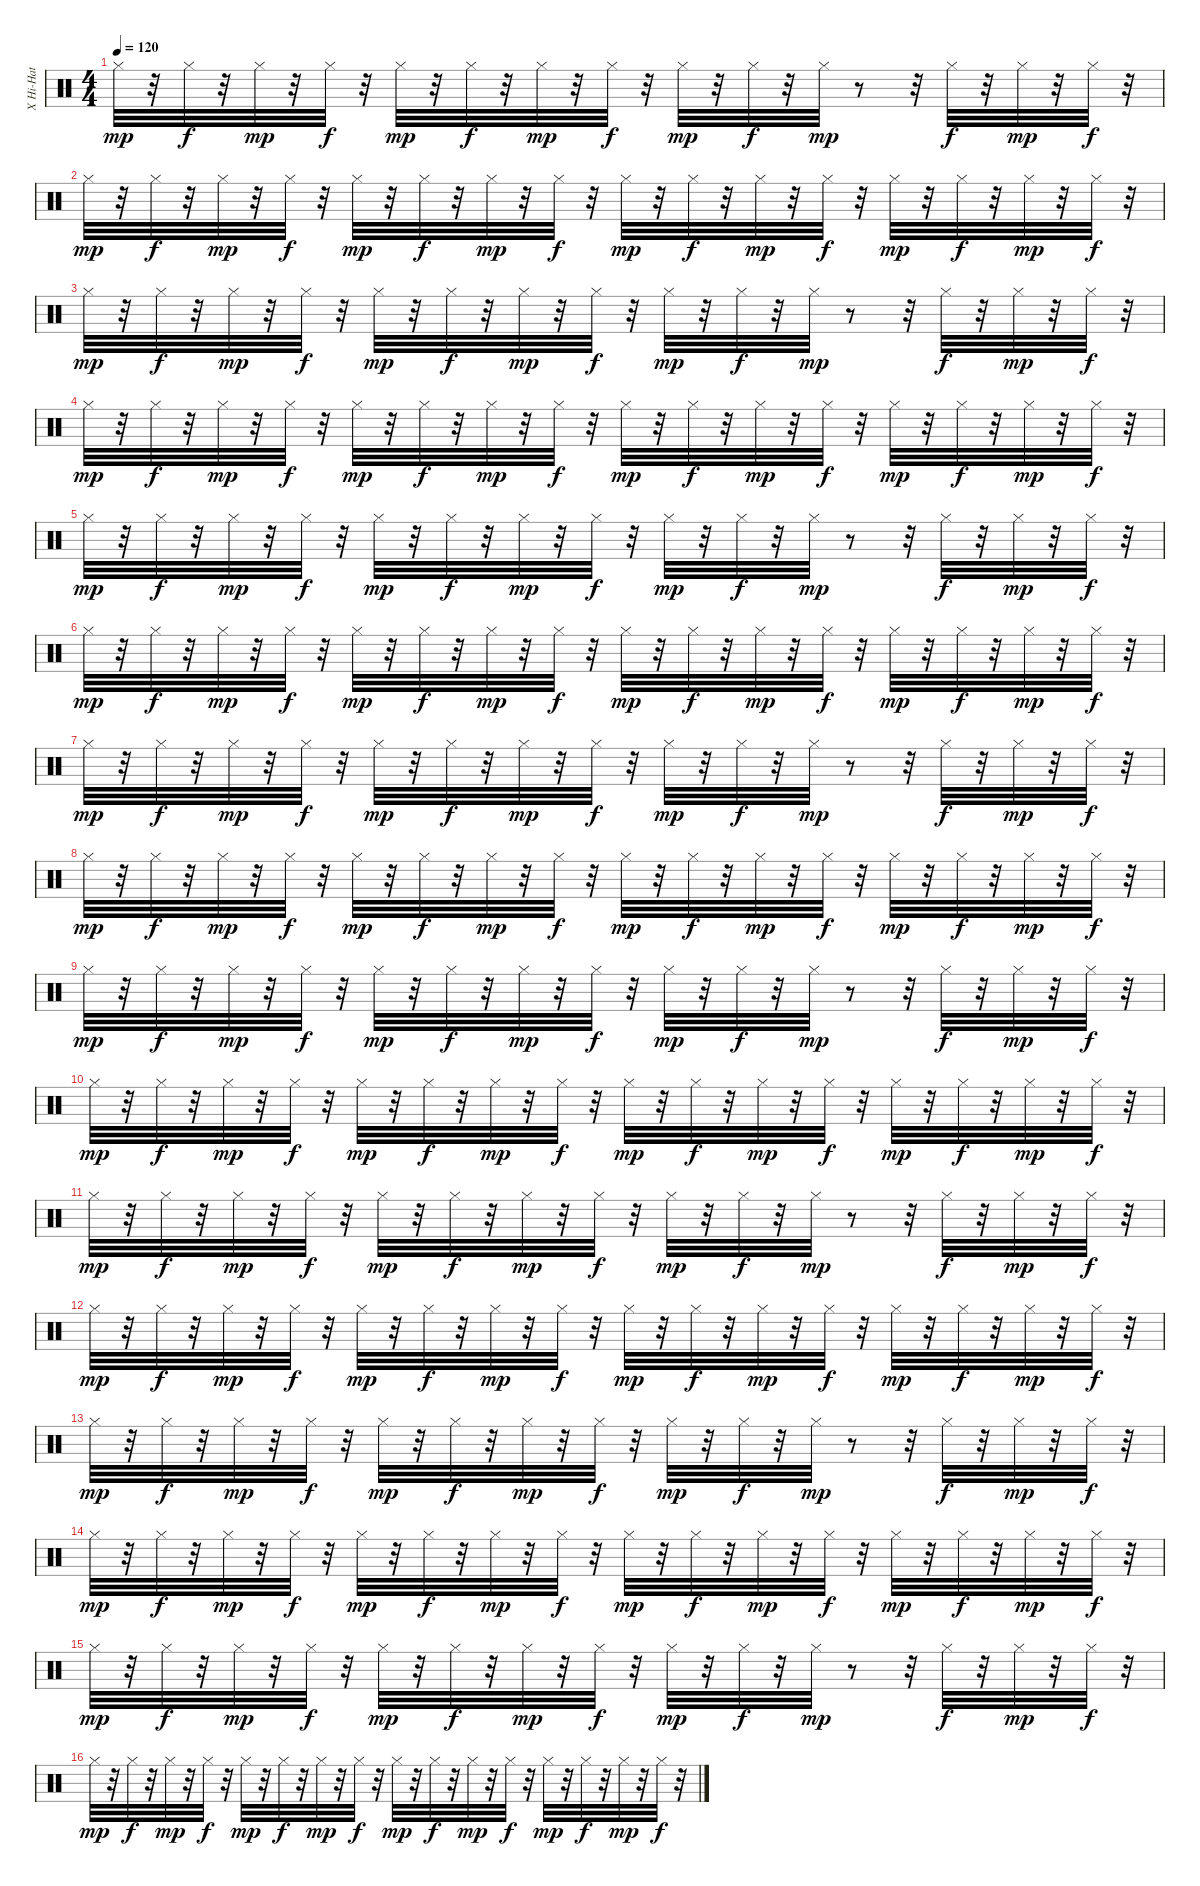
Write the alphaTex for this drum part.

\track ("X Hi-Hat            " "X Hi-Hat  ") {instrument percussion}
\staff {score}
\articulation defaults
\ts (4 4)
\tempo 120
\clef neutral
\ks c "Hi-Hat (closed)".32{dy mp}
r.32 "Hi-Hat (closed)".32{dy f} r.32 "Hi-Hat (closed)".32{dy mp} r.32 "Hi-Hat (closed)".32{dy f} r.32 "Hi-Hat (closed)".32{dy mp} r.32 "Hi-Hat (closed)".32{dy f} r.32 "Hi-Hat (closed)".32{dy mp} r.32 "Hi-Hat (closed)".32{dy f} r.32 "Hi-Hat (closed)".32{dy mp} r.32 "Hi-Hat (closed)".32{dy f} r.32 "Hi-Hat (closed)".32{dy mp} r.8 r.32 "Hi-Hat (closed)".32{dy f} r.32 "Hi-Hat (closed)".32{dy mp} r.32 "Hi-Hat (closed)".32{dy f} r.32 |
"Hi-Hat (closed)".32{dy mp} r.32 "Hi-Hat (closed)".32{dy f} r.32 "Hi-Hat (closed)".32{dy mp} r.32 "Hi-Hat (closed)".32{dy f} r.32 "Hi-Hat (closed)".32{dy mp} r.32 "Hi-Hat (closed)".32{dy f} r.32 "Hi-Hat (closed)".32{dy mp} r.32 "Hi-Hat (closed)".32{dy f} r.32 "Hi-Hat (closed)".32{dy mp} r.32 "Hi-Hat (closed)".32{dy f} r.32 "Hi-Hat (closed)".32{dy mp} r.32 "Hi-Hat (closed)".32{dy f} r.32 "Hi-Hat (closed)".32{dy mp} r.32 "Hi-Hat (closed)".32{dy f} r.32 "Hi-Hat (closed)".32{dy mp} r.32 "Hi-Hat (closed)".32{dy f} r.32 |
"Hi-Hat (closed)".32{dy mp} r.32 "Hi-Hat (closed)".32{dy f} r.32 "Hi-Hat (closed)".32{dy mp} r.32 "Hi-Hat (closed)".32{dy f} r.32 "Hi-Hat (closed)".32{dy mp} r.32 "Hi-Hat (closed)".32{dy f} r.32 "Hi-Hat (closed)".32{dy mp} r.32 "Hi-Hat (closed)".32{dy f} r.32 "Hi-Hat (closed)".32{dy mp} r.32 "Hi-Hat (closed)".32{dy f} r.32 "Hi-Hat (closed)".32{dy mp} r.8 r.32 "Hi-Hat (closed)".32{dy f} r.32 "Hi-Hat (closed)".32{dy mp} r.32 "Hi-Hat (closed)".32{dy f} r.32 |
"Hi-Hat (closed)".32{dy mp} r.32 "Hi-Hat (closed)".32{dy f} r.32 "Hi-Hat (closed)".32{dy mp} r.32 "Hi-Hat (closed)".32{dy f} r.32 "Hi-Hat (closed)".32{dy mp} r.32 "Hi-Hat (closed)".32{dy f} r.32 "Hi-Hat (closed)".32{dy mp} r.32 "Hi-Hat (closed)".32{dy f} r.32 "Hi-Hat (closed)".32{dy mp} r.32 "Hi-Hat (closed)".32{dy f} r.32 "Hi-Hat (closed)".32{dy mp} r.32 "Hi-Hat (closed)".32{dy f} r.32 "Hi-Hat (closed)".32{dy mp} r.32 "Hi-Hat (closed)".32{dy f} r.32 "Hi-Hat (closed)".32{dy mp} r.32 "Hi-Hat (closed)".32{dy f} r.32 |
"Hi-Hat (closed)".32{dy mp} r.32 "Hi-Hat (closed)".32{dy f} r.32 "Hi-Hat (closed)".32{dy mp} r.32 "Hi-Hat (closed)".32{dy f} r.32 "Hi-Hat (closed)".32{dy mp} r.32 "Hi-Hat (closed)".32{dy f} r.32 "Hi-Hat (closed)".32{dy mp} r.32 "Hi-Hat (closed)".32{dy f} r.32 "Hi-Hat (closed)".32{dy mp} r.32 "Hi-Hat (closed)".32{dy f} r.32 "Hi-Hat (closed)".32{dy mp} r.8 r.32 "Hi-Hat (closed)".32{dy f} r.32 "Hi-Hat (closed)".32{dy mp} r.32 "Hi-Hat (closed)".32{dy f} r.32 |
"Hi-Hat (closed)".32{dy mp} r.32 "Hi-Hat (closed)".32{dy f} r.32 "Hi-Hat (closed)".32{dy mp} r.32 "Hi-Hat (closed)".32{dy f} r.32 "Hi-Hat (closed)".32{dy mp} r.32 "Hi-Hat (closed)".32{dy f} r.32 "Hi-Hat (closed)".32{dy mp} r.32 "Hi-Hat (closed)".32{dy f} r.32 "Hi-Hat (closed)".32{dy mp} r.32 "Hi-Hat (closed)".32{dy f} r.32 "Hi-Hat (closed)".32{dy mp} r.32 "Hi-Hat (closed)".32{dy f} r.32 "Hi-Hat (closed)".32{dy mp} r.32 "Hi-Hat (closed)".32{dy f} r.32 "Hi-Hat (closed)".32{dy mp} r.32 "Hi-Hat (closed)".32{dy f} r.32 |
"Hi-Hat (closed)".32{dy mp} r.32 "Hi-Hat (closed)".32{dy f} r.32 "Hi-Hat (closed)".32{dy mp} r.32 "Hi-Hat (closed)".32{dy f} r.32 "Hi-Hat (closed)".32{dy mp} r.32 "Hi-Hat (closed)".32{dy f} r.32 "Hi-Hat (closed)".32{dy mp} r.32 "Hi-Hat (closed)".32{dy f} r.32 "Hi-Hat (closed)".32{dy mp} r.32 "Hi-Hat (closed)".32{dy f} r.32 "Hi-Hat (closed)".32{dy mp} r.8 r.32 "Hi-Hat (closed)".32{dy f} r.32 "Hi-Hat (closed)".32{dy mp} r.32 "Hi-Hat (closed)".32{dy f} r.32 |
"Hi-Hat (closed)".32{dy mp} r.32 "Hi-Hat (closed)".32{dy f} r.32 "Hi-Hat (closed)".32{dy mp} r.32 "Hi-Hat (closed)".32{dy f} r.32 "Hi-Hat (closed)".32{dy mp} r.32 "Hi-Hat (closed)".32{dy f} r.32 "Hi-Hat (closed)".32{dy mp} r.32 "Hi-Hat (closed)".32{dy f} r.32 "Hi-Hat (closed)".32{dy mp} r.32 "Hi-Hat (closed)".32{dy f} r.32 "Hi-Hat (closed)".32{dy mp} r.32 "Hi-Hat (closed)".32{dy f} r.32 "Hi-Hat (closed)".32{dy mp} r.32 "Hi-Hat (closed)".32{dy f} r.32 "Hi-Hat (closed)".32{dy mp} r.32 "Hi-Hat (closed)".32{dy f} r.32 |
"Hi-Hat (closed)".32{dy mp} r.32 "Hi-Hat (closed)".32{dy f} r.32 "Hi-Hat (closed)".32{dy mp} r.32 "Hi-Hat (closed)".32{dy f} r.32 "Hi-Hat (closed)".32{dy mp} r.32 "Hi-Hat (closed)".32{dy f} r.32 "Hi-Hat (closed)".32{dy mp} r.32 "Hi-Hat (closed)".32{dy f} r.32 "Hi-Hat (closed)".32{dy mp} r.32 "Hi-Hat (closed)".32{dy f} r.32 "Hi-Hat (closed)".32{dy mp} r.8 r.32 "Hi-Hat (closed)".32{dy f} r.32 "Hi-Hat (closed)".32{dy mp} r.32 "Hi-Hat (closed)".32{dy f} r.32 |
"Hi-Hat (closed)".32{dy mp} r.32 "Hi-Hat (closed)".32{dy f} r.32 "Hi-Hat (closed)".32{dy mp} r.32 "Hi-Hat (closed)".32{dy f} r.32 "Hi-Hat (closed)".32{dy mp} r.32 "Hi-Hat (closed)".32{dy f} r.32 "Hi-Hat (closed)".32{dy mp} r.32 "Hi-Hat (closed)".32{dy f} r.32 "Hi-Hat (closed)".32{dy mp} r.32 "Hi-Hat (closed)".32{dy f} r.32 "Hi-Hat (closed)".32{dy mp} r.32 "Hi-Hat (closed)".32{dy f} r.32 "Hi-Hat (closed)".32{dy mp} r.32 "Hi-Hat (closed)".32{dy f} r.32 "Hi-Hat (closed)".32{dy mp} r.32 "Hi-Hat (closed)".32{dy f} r.32 |
"Hi-Hat (closed)".32{dy mp} r.32 "Hi-Hat (closed)".32{dy f} r.32 "Hi-Hat (closed)".32{dy mp} r.32 "Hi-Hat (closed)".32{dy f} r.32 "Hi-Hat (closed)".32{dy mp} r.32 "Hi-Hat (closed)".32{dy f} r.32 "Hi-Hat (closed)".32{dy mp} r.32 "Hi-Hat (closed)".32{dy f} r.32 "Hi-Hat (closed)".32{dy mp} r.32 "Hi-Hat (closed)".32{dy f} r.32 "Hi-Hat (closed)".32{dy mp} r.8 r.32 "Hi-Hat (closed)".32{dy f} r.32 "Hi-Hat (closed)".32{dy mp} r.32 "Hi-Hat (closed)".32{dy f} r.32 |
"Hi-Hat (closed)".32{dy mp} r.32 "Hi-Hat (closed)".32{dy f} r.32 "Hi-Hat (closed)".32{dy mp} r.32 "Hi-Hat (closed)".32{dy f} r.32 "Hi-Hat (closed)".32{dy mp} r.32 "Hi-Hat (closed)".32{dy f} r.32 "Hi-Hat (closed)".32{dy mp} r.32 "Hi-Hat (closed)".32{dy f} r.32 "Hi-Hat (closed)".32{dy mp} r.32 "Hi-Hat (closed)".32{dy f} r.32 "Hi-Hat (closed)".32{dy mp} r.32 "Hi-Hat (closed)".32{dy f} r.32 "Hi-Hat (closed)".32{dy mp} r.32 "Hi-Hat (closed)".32{dy f} r.32 "Hi-Hat (closed)".32{dy mp} r.32 "Hi-Hat (closed)".32{dy f} r.32 |
"Hi-Hat (closed)".32{dy mp} r.32 "Hi-Hat (closed)".32{dy f} r.32 "Hi-Hat (closed)".32{dy mp} r.32 "Hi-Hat (closed)".32{dy f} r.32 "Hi-Hat (closed)".32{dy mp} r.32 "Hi-Hat (closed)".32{dy f} r.32 "Hi-Hat (closed)".32{dy mp} r.32 "Hi-Hat (closed)".32{dy f} r.32 "Hi-Hat (closed)".32{dy mp} r.32 "Hi-Hat (closed)".32{dy f} r.32 "Hi-Hat (closed)".32{dy mp} r.8 r.32 "Hi-Hat (closed)".32{dy f} r.32 "Hi-Hat (closed)".32{dy mp} r.32 "Hi-Hat (closed)".32{dy f} r.32 |
"Hi-Hat (closed)".32{dy mp} r.32 "Hi-Hat (closed)".32{dy f} r.32 "Hi-Hat (closed)".32{dy mp} r.32 "Hi-Hat (closed)".32{dy f} r.32 "Hi-Hat (closed)".32{dy mp} r.32 "Hi-Hat (closed)".32{dy f} r.32 "Hi-Hat (closed)".32{dy mp} r.32 "Hi-Hat (closed)".32{dy f} r.32 "Hi-Hat (closed)".32{dy mp} r.32 "Hi-Hat (closed)".32{dy f} r.32 "Hi-Hat (closed)".32{dy mp} r.32 "Hi-Hat (closed)".32{dy f} r.32 "Hi-Hat (closed)".32{dy mp} r.32 "Hi-Hat (closed)".32{dy f} r.32 "Hi-Hat (closed)".32{dy mp} r.32 "Hi-Hat (closed)".32{dy f} r.32 |
"Hi-Hat (closed)".32{dy mp} r.32 "Hi-Hat (closed)".32{dy f} r.32 "Hi-Hat (closed)".32{dy mp} r.32 "Hi-Hat (closed)".32{dy f} r.32 "Hi-Hat (closed)".32{dy mp} r.32 "Hi-Hat (closed)".32{dy f} r.32 "Hi-Hat (closed)".32{dy mp} r.32 "Hi-Hat (closed)".32{dy f} r.32 "Hi-Hat (closed)".32{dy mp} r.32 "Hi-Hat (closed)".32{dy f} r.32 "Hi-Hat (closed)".32{dy mp} r.8 r.32 "Hi-Hat (closed)".32{dy f} r.32 "Hi-Hat (closed)".32{dy mp} r.32 "Hi-Hat (closed)".32{dy f} r.32 |
"Hi-Hat (closed)".32{dy mp} r.32 "Hi-Hat (closed)".32{dy f} r.32 "Hi-Hat (closed)".32{dy mp} r.32 "Hi-Hat (closed)".32{dy f} r.32 "Hi-Hat (closed)".32{dy mp} r.32 "Hi-Hat (closed)".32{dy f} r.32 "Hi-Hat (closed)".32{dy mp} r.32 "Hi-Hat (closed)".32{dy f} r.32 "Hi-Hat (closed)".32{dy mp} r.32 "Hi-Hat (closed)".32{dy f} r.32 "Hi-Hat (closed)".32{dy mp} r.32 "Hi-Hat (closed)".32{dy f} r.32 "Hi-Hat (closed)".32{dy mp} r.32 "Hi-Hat (closed)".32{dy f} r.32 "Hi-Hat (closed)".32{dy mp} r.32 "Hi-Hat (closed)".32{dy f} r.32
